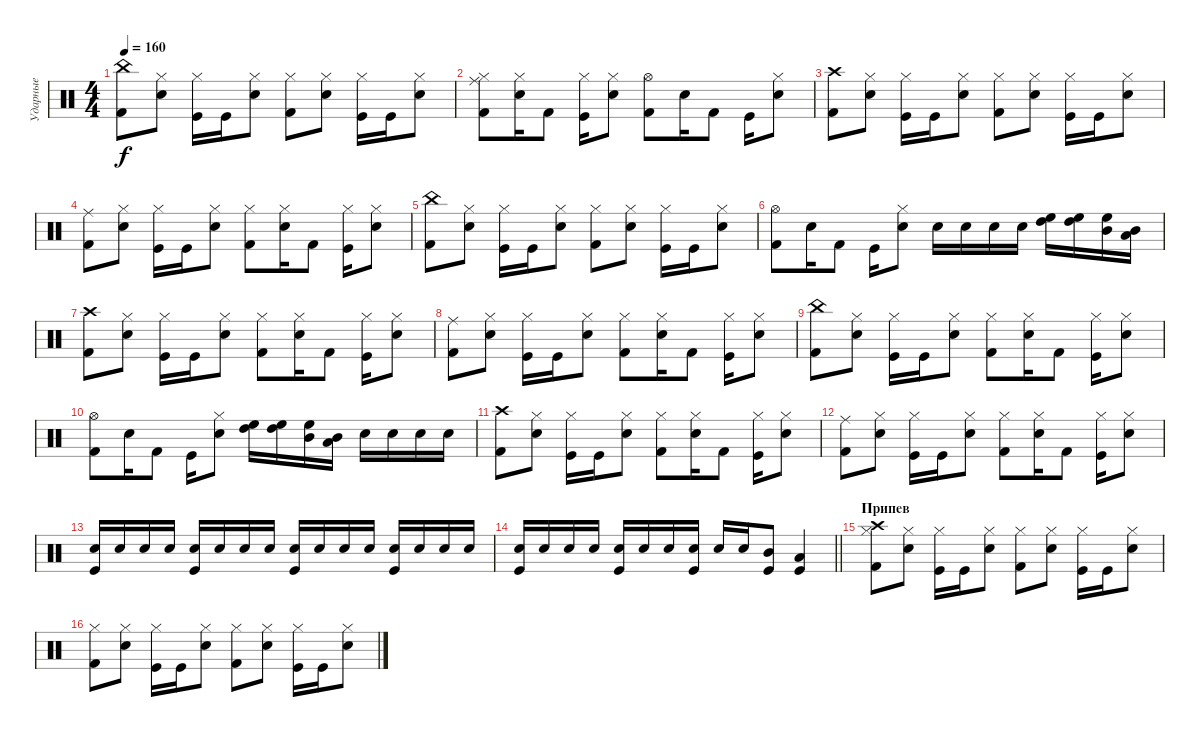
\track ("Ударные" "Ударные") {instrument percussion}
\staff {score}
\articulation defaults
\ts (4 4)
\tempo 160
\clef neutral
\ks c
("China (hit)" "Kick (hit) 2").8{dy f} ("Hi-Hat (closed)" "Snare (hit) 2").8 ("Hi-Hat (closed)" "Kick (hit)").16 "Kick (hit)".16 ("Hi-Hat (closed)" "Snare (hit) 2").8 ("Hi-Hat (closed)" "Kick (hit) 2").8 ("Hi-Hat (closed)" "Snare (hit) 2").8 ("Hi-Hat (closed)" "Kick (hit)").16 "Kick (hit)".16 ("Hi-Hat (closed)" "Snare (hit) 2").8 |
("Ride (middle)" "Hi-Hat (closed)" "Kick (hit) 2").8 ("Hi-Hat (closed)" "Snare (hit) 2").16 "Kick (hit) 2".8 ("Hi-Hat (closed)" "Kick (hit)").16 ("Hi-Hat (closed)" "Snare (hit) 2").8 ("Hi-Hat (open)" "Kick (hit) 2").8 "Snare (hit) 2".16 "Kick (hit) 2".8 "Kick (hit)".16 ("Hi-Hat (closed)" "Snare (hit) 2").8 |
("Crash high (hit)" "Kick (hit) 2").8 ("Hi-Hat (closed)" "Snare (hit) 2").8 ("Hi-Hat (closed)" "Kick (hit)").16 "Kick (hit)".16 ("Hi-Hat (closed)" "Snare (hit) 2").8 ("Hi-Hat (closed)" "Kick (hit) 2").8 ("Hi-Hat (closed)" "Snare (hit) 2").8 ("Hi-Hat (closed)" "Kick (hit)").16 "Kick (hit)".16 ("Hi-Hat (closed)" "Snare (hit) 2").8 |
("Ride (middle)" "Kick (hit) 2").8 ("Hi-Hat (closed)" "Snare (hit) 2").8 ("Hi-Hat (closed)" "Kick (hit)").16 "Kick (hit)".16 ("Hi-Hat (closed)" "Snare (hit) 2").8 ("Hi-Hat (closed)" "Kick (hit) 2").8 ("Hi-Hat (closed)" "Snare (hit) 2").16 "Kick (hit) 2".8 ("Hi-Hat (closed)" "Kick (hit)").16 ("Hi-Hat (closed)" "Snare (hit) 2").8 |
("China (hit)" "Kick (hit) 2").8 ("Hi-Hat (closed)" "Snare (hit) 2").8 ("Hi-Hat (closed)" "Kick (hit)").16 "Kick (hit)".16 ("Hi-Hat (closed)" "Snare (hit) 2").8 ("Hi-Hat (closed)" "Kick (hit) 2").8 ("Hi-Hat (closed)" "Snare (hit) 2").8 ("Hi-Hat (closed)" "Kick (hit)").16 "Kick (hit)".16 ("Hi-Hat (closed)" "Snare (hit) 2").8 |
("Hi-Hat (open)" "Kick (hit) 2").8 "Snare (hit) 2".16 "Kick (hit) 2".8 "Kick (hit)".16 ("Hi-Hat (closed)" "Snare (hit) 2").8 "Snare (hit) 2".16 "Snare (hit) 2".16 "Snare (hit) 2".16 "Snare (hit) 2".16 ("High Tom (hit)" "High Floor Tom (hit)").16 ("High Floor Tom (hit)" "High Tom (hit)").16 ("High Floor Tom (hit)" "Mid Tom (hit)").16 ("Mid Tom (hit)" "Low Tom (hit)").16 |
("Crash high (hit)" "Kick (hit) 2").8 ("Hi-Hat (closed)" "Snare (hit) 2").8 ("Hi-Hat (closed)" "Kick (hit)").16 "Kick (hit)".16 ("Hi-Hat (closed)" "Snare (hit) 2").8 ("Hi-Hat (closed)" "Kick (hit) 2").8 ("Hi-Hat (closed)" "Snare (hit) 2").16 "Kick (hit) 2".8 ("Hi-Hat (closed)" "Kick (hit)").16 ("Hi-Hat (closed)" "Snare (hit) 2").8 |
("Ride (middle)" "Kick (hit) 2").8 ("Hi-Hat (closed)" "Snare (hit) 2").8 ("Hi-Hat (closed)" "Kick (hit)").16 "Kick (hit)".16 ("Hi-Hat (closed)" "Snare (hit) 2").8 ("Hi-Hat (closed)" "Kick (hit) 2").8 ("Hi-Hat (closed)" "Snare (hit) 2").16 "Kick (hit) 2".8 ("Hi-Hat (closed)" "Kick (hit)").16 ("Hi-Hat (closed)" "Snare (hit) 2").8 |
("China (hit)" "Kick (hit) 2").8 ("Hi-Hat (closed)" "Snare (hit) 2").8 ("Hi-Hat (closed)" "Kick (hit)").16 "Kick (hit)".16 ("Hi-Hat (closed)" "Snare (hit) 2").8 ("Hi-Hat (closed)" "Kick (hit) 2").8 ("Hi-Hat (closed)" "Snare (hit) 2").16 "Kick (hit) 2".8 ("Hi-Hat (closed)" "Kick (hit)").16 ("Hi-Hat (closed)" "Snare (hit) 2").8 |
("Hi-Hat (open)" "Kick (hit) 2").8 "Snare (hit) 2".16 "Kick (hit) 2".8 "Kick (hit)".16 ("Hi-Hat (closed)" "Snare (hit) 2").8 ("High Tom (hit)" "High Floor Tom (hit)").16 ("High Floor Tom (hit)" "High Tom (hit)").16 ("High Floor Tom (hit)" "Mid Tom (hit)").16 ("Mid Tom (hit)" "Low Tom (hit)").16 "Snare (hit) 2".16 "Snare (hit) 2".16 "Snare (hit) 2".16 "Snare (hit) 2".16 |
("Crash high (hit)" "Kick (hit) 2").8 ("Hi-Hat (closed)" "Snare (hit) 2").8 ("Hi-Hat (closed)" "Kick (hit)").16 "Kick (hit)".16 ("Hi-Hat (closed)" "Snare (hit) 2").8 ("Hi-Hat (closed)" "Kick (hit) 2").8 ("Hi-Hat (closed)" "Snare (hit) 2").16 "Kick (hit) 2".8 ("Hi-Hat (closed)" "Kick (hit)").16 ("Hi-Hat (closed)" "Snare (hit) 2").8 |
("Ride (middle)" "Kick (hit) 2").8 ("Hi-Hat (closed)" "Snare (hit) 2").8 ("Hi-Hat (closed)" "Kick (hit)").16 "Kick (hit)".16 ("Hi-Hat (closed)" "Snare (hit) 2").8 ("Hi-Hat (closed)" "Kick (hit) 2").8 ("Hi-Hat (closed)" "Snare (hit) 2").16 "Kick (hit) 2".8 ("Hi-Hat (closed)" "Kick (hit)").16 ("Hi-Hat (closed)" "Snare (hit) 2").8 |
("Snare (hit) 2" "Kick (hit)").16 "Snare (hit) 2".16 "Snare (hit) 2".16 "Snare (hit) 2".16 ("Snare (hit) 2" "Kick (hit)").16 "Snare (hit) 2".16 "Snare (hit) 2".16 "Snare (hit) 2".16 ("Snare (hit) 2" "Kick (hit)").16 "Snare (hit) 2".16 "Snare (hit) 2".16 "Snare (hit) 2".16 ("Snare (hit) 2" "Kick (hit)").16 "Snare (hit) 2".16 "Snare (hit) 2".16 "Snare (hit) 2".16 |
\barLineRight lightlight
("Snare (hit) 2" "Kick (hit)").16 "Snare (hit) 2".16 "Snare (hit) 2".16 "Snare (hit) 2".16 ("Snare (hit) 2" "Kick (hit)").16 "Snare (hit) 2".16 "Snare (hit) 2".16 ("Snare (hit) 2" "Kick (hit)").16 "Snare (hit) 2".16 "Snare (hit) 2".16 ("Mid Tom (hit)" "Kick (hit)").8 ("Low Tom (hit)" "Kick (hit)").4 |
\section ("" "Припев")
("Crash high (hit)" "Hi-Hat (closed)" "Kick (hit) 2").8 ("Hi-Hat (closed)" "Snare (hit) 2").8 ("Hi-Hat (closed)" "Kick (hit)").16 "Kick (hit)".16 ("Hi-Hat (closed)" "Snare (hit) 2").8 ("Hi-Hat (closed)" "Kick (hit) 2").8 ("Hi-Hat (closed)" "Snare (hit) 2").8 ("Hi-Hat (closed)" "Kick (hit)").16 "Kick (hit)".16 ("Hi-Hat (closed)" "Snare (hit) 2").8 |
("Hi-Hat (closed)" "Kick (hit) 2").8 ("Hi-Hat (closed)" "Snare (hit) 2").8 ("Hi-Hat (closed)" "Kick (hit)").16 "Kick (hit)".16 ("Hi-Hat (closed)" "Snare (hit) 2").8 ("Hi-Hat (closed)" "Kick (hit) 2").8 ("Hi-Hat (closed)" "Snare (hit) 2").8 ("Hi-Hat (closed)" "Kick (hit)").16 "Kick (hit)".16 ("Hi-Hat (closed)" "Snare (hit) 2").8
